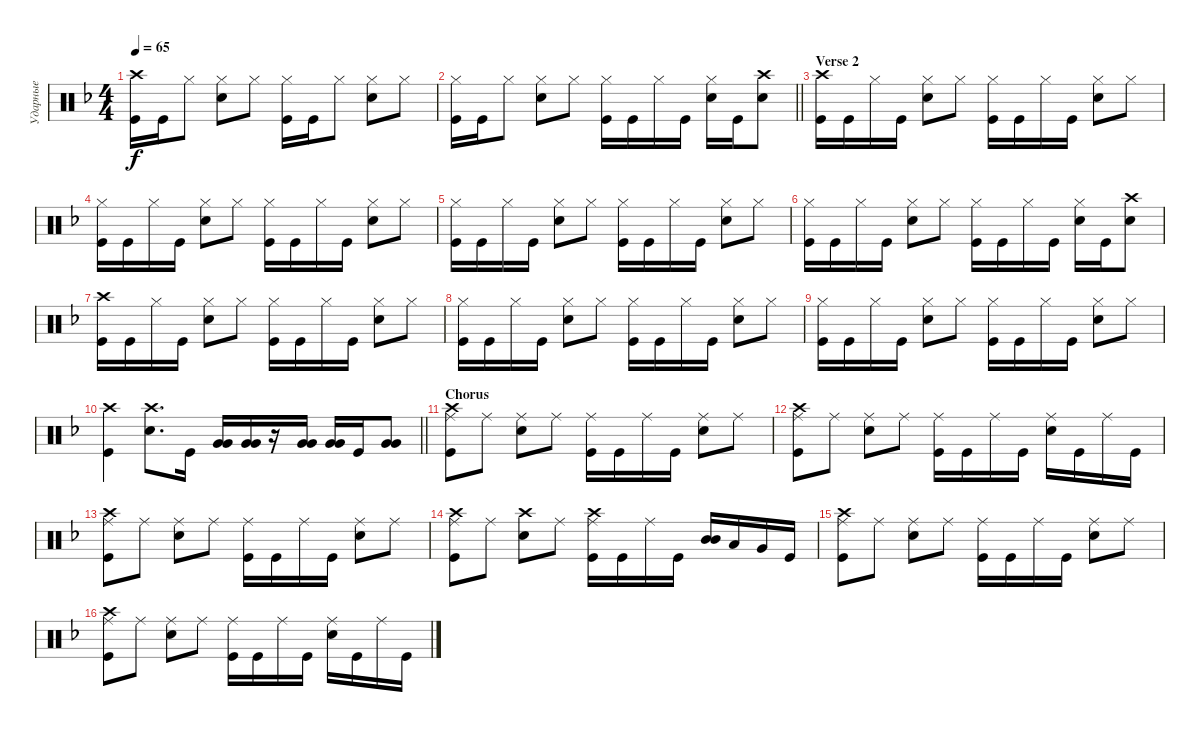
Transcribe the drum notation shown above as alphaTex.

\track ("Ударные" "Ударные") {instrument percussion}
\staff {score}
\articulation defaults
\ts (4 4)
\tempo 65
\clef neutral
\ks dminor
("Kick (hit)" "Crash high (hit)").16{dy f} "Kick (hit)".16 "Hi-Hat (closed)".8 ("Snare (hit) 2" "Hi-Hat (closed)").8 "Hi-Hat (closed)".8 ("Hi-Hat (closed)" "Kick (hit)").16 "Kick (hit)".16 "Hi-Hat (closed)".8 ("Hi-Hat (closed)" "Snare (hit) 2").8 "Hi-Hat (closed)".8 |
\barLineRight lightlight
("Kick (hit)" "Hi-Hat (closed)").16 "Kick (hit)".16 "Hi-Hat (closed)".8 ("Snare (hit) 2" "Hi-Hat (closed)").8 "Hi-Hat (closed)".8 ("Hi-Hat (closed)" "Kick (hit)").16 "Kick (hit)".16 "Hi-Hat (closed)".16 "Kick (hit)".16 ("Hi-Hat (closed)" "Snare (hit) 2").16 "Kick (hit)".16 ("Crash high (hit)" "Snare (hit) 2").8 |
\section ("" "Verse 2")
("Kick (hit)" "Crash high (hit)").16 "Kick (hit)".16 "Hi-Hat (closed)".16 "Kick (hit)".16 ("Snare (hit) 2" "Hi-Hat (closed)").8 "Hi-Hat (closed)".8 ("Kick (hit)" "Hi-Hat (closed)").16 "Kick (hit)".16 "Hi-Hat (closed)".16 "Kick (hit)".16 ("Snare (hit) 2" "Hi-Hat (closed)").8 "Hi-Hat (closed)".8 |
("Kick (hit)" "Hi-Hat (closed)").16 "Kick (hit)".16 "Hi-Hat (closed)".16 "Kick (hit)".16 ("Snare (hit) 2" "Hi-Hat (closed)").8 "Hi-Hat (closed)".8 ("Kick (hit)" "Hi-Hat (closed)").16 "Kick (hit)".16 "Hi-Hat (closed)".16 "Kick (hit)".16 ("Snare (hit) 2" "Hi-Hat (closed)").8 "Hi-Hat (closed)".8 |
("Kick (hit)" "Hi-Hat (closed)").16 "Kick (hit)".16 "Hi-Hat (closed)".16 "Kick (hit)".16 ("Snare (hit) 2" "Hi-Hat (closed)").8 "Hi-Hat (closed)".8 ("Kick (hit)" "Hi-Hat (closed)").16 "Kick (hit)".16 "Hi-Hat (closed)".16 "Kick (hit)".16 ("Snare (hit) 2" "Hi-Hat (closed)").8 "Hi-Hat (closed)".8 |
("Kick (hit)" "Hi-Hat (closed)").16 "Kick (hit)".16 "Hi-Hat (closed)".16 "Kick (hit)".16 ("Snare (hit) 2" "Hi-Hat (closed)").8 "Hi-Hat (closed)".8 ("Hi-Hat (closed)" "Kick (hit)").16 "Kick (hit)".16 "Hi-Hat (closed)".16 "Kick (hit)".16 ("Hi-Hat (closed)" "Snare (hit) 2").16 "Kick (hit)".16 ("Crash high (hit)" "Snare (hit) 2").8 |
("Kick (hit)" "Crash high (hit)").16 "Kick (hit)".16 "Hi-Hat (closed)".16 "Kick (hit)".16 ("Snare (hit) 2" "Hi-Hat (closed)").8 "Hi-Hat (closed)".8 ("Kick (hit)" "Hi-Hat (closed)").16 "Kick (hit)".16 "Hi-Hat (closed)".16 "Kick (hit)".16 ("Snare (hit) 2" "Hi-Hat (closed)").8 "Hi-Hat (closed)".8 |
("Kick (hit)" "Hi-Hat (closed)").16 "Kick (hit)".16 "Hi-Hat (closed)".16 "Kick (hit)".16 ("Snare (hit) 2" "Hi-Hat (closed)").8 "Hi-Hat (closed)".8 ("Kick (hit)" "Hi-Hat (closed)").16 "Kick (hit)".16 "Hi-Hat (closed)".16 "Kick (hit)".16 ("Snare (hit) 2" "Hi-Hat (closed)").8 "Hi-Hat (closed)".8 |
("Kick (hit)" "Hi-Hat (closed)").16 "Kick (hit)".16 "Hi-Hat (closed)".16 "Kick (hit)".16 ("Snare (hit) 2" "Hi-Hat (closed)").8 "Hi-Hat (closed)".8 ("Kick (hit)" "Hi-Hat (closed)").16 "Kick (hit)".16 "Hi-Hat (closed)".16 "Kick (hit)".16 ("Snare (hit) 2" "Hi-Hat (closed)").8 "Hi-Hat (closed)".8 |
\barLineRight lightlight
("Kick (hit)" "Crash high (hit)").4 ("Snare (hit) 2" "Crash high (hit)").8{d} "Kick (hit)".16 ("Very Low Tom (hit)" "Very Low Tom (hit)").16{bd 480} ("Very Low Tom (hit)" "Very Low Tom (hit)").16{bd 480} r.16 ("Very Low Tom (hit)" "Very Low Tom (hit)").16{bd 480} ("Very Low Tom (hit)" "Very Low Tom (hit)").16{bd 480} "Kick (hit)".16 ("Very Low Tom (hit)" "Very Low Tom (hit)").8{bd 480} |
\section ("" "Chorus")
("Kick (hit)" "Crash high (hit)" "Ride (middle)").8 "Ride (middle)".8 ("Ride (middle)" "Snare (hit) 2").8 "Ride (middle)".8 ("Ride (middle)" "Kick (hit)").16 "Kick (hit)".16 "Ride (middle)".16 "Kick (hit)".16 ("Snare (hit) 2" "Ride (middle)").8 "Ride (middle)".8 |
("Kick (hit)" "Crash high (hit)" "Ride (middle)").8 "Ride (middle)".8 ("Ride (middle)" "Snare (hit) 2").8 "Ride (middle)".8 ("Ride (middle)" "Kick (hit)").16 "Kick (hit)".16 "Ride (middle)".16 "Kick (hit)".16 ("Snare (hit) 2" "Ride (middle)").16 "Kick (hit)".16 "Ride (middle)".16 "Kick (hit)".16 |
("Kick (hit)" "Crash high (hit)" "Ride (middle)").8 "Ride (middle)".8 ("Ride (middle)" "Snare (hit) 2").8 "Ride (middle)".8 ("Ride (middle)" "Kick (hit)").16 "Kick (hit)".16 "Ride (middle)".16 "Kick (hit)".16 ("Snare (hit) 2" "Ride (middle)").8 "Ride (middle)".8 |
("Kick (hit)" "Ride (middle)" "Crash high (hit)").8 "Ride (middle)".8 ("Snare (hit) 2" "Crash high (hit)").8 "Ride (middle)".8 ("Ride (middle)" "Kick (hit)" "Crash high (hit)").16 "Kick (hit)".16 "Ride (middle)".16 "Kick (hit)".16 ("Mid Tom (hit)" "Mid Tom (hit)").16{bd 480} "Low Tom (hit)".16 "Very Low Tom (hit)".16 "Kick (hit)".16 |
("Kick (hit)" "Crash high (hit)" "Ride (middle)").8 "Ride (middle)".8 ("Ride (middle)" "Snare (hit) 2").8 "Ride (middle)".8 ("Ride (middle)" "Kick (hit)").16 "Kick (hit)".16 "Ride (middle)".16 "Kick (hit)".16 ("Snare (hit) 2" "Ride (middle)").8 "Ride (middle)".8 |
("Kick (hit)" "Crash high (hit)" "Ride (middle)").8 "Ride (middle)".8 ("Ride (middle)" "Snare (hit) 2").8 "Ride (middle)".8 ("Ride (middle)" "Kick (hit)").16 "Kick (hit)".16 "Ride (middle)".16 "Kick (hit)".16 ("Snare (hit) 2" "Ride (middle)").16 "Kick (hit)".16 "Ride (middle)".16 "Kick (hit)".16
